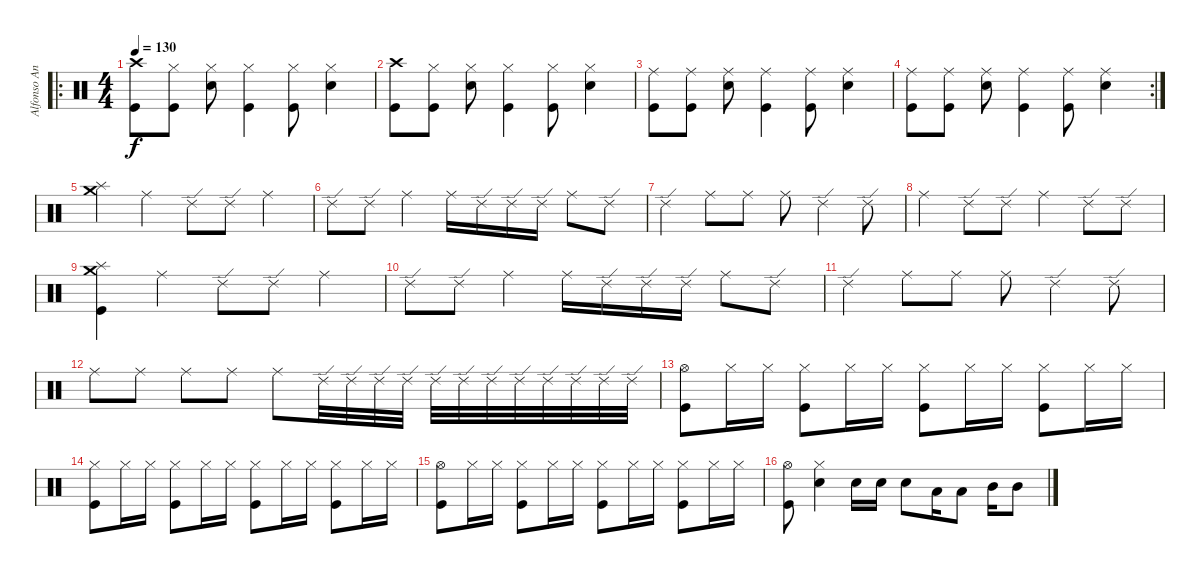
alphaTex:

\track ("Alfonso Andre" "Alfonso An") {instrument percussion}
\staff {score}
\articulation defaults
\ro
\ts (4 4)
\tempo 130
\clef neutral
\ks c
("Kick (hit)" "Crash high (hit)").8{dy f} ("Kick (hit)" "Hi-Hat (closed)").8 ("Snare (hit) 2" "Hi-Hat (closed)").8 ("Kick (hit)" "Hi-Hat (closed)").4 ("Kick (hit)" "Hi-Hat (closed)").8 ("Snare (hit) 2" "Hi-Hat (closed)").4 |
("Kick (hit)" "Crash high (hit)").8 ("Kick (hit)" "Hi-Hat (closed)").8 ("Snare (hit) 2" "Hi-Hat (closed)").8 ("Kick (hit)" "Hi-Hat (closed)").4 ("Kick (hit)" "Hi-Hat (closed)").8 ("Snare (hit) 2" "Hi-Hat (closed)").4 |
("Kick (hit)" "Ride (middle)").8 ("Kick (hit)" "Ride (middle)").8 ("Snare (hit) 2" "Ride (middle)").8 ("Kick (hit)" "Ride (middle)").4 ("Kick (hit)" "Ride (middle)").8 ("Snare (hit) 2" "Ride (middle)").4 |
\rc 2
("Kick (hit)" "Ride (middle)").8 ("Kick (hit)" "Ride (middle)").8 ("Snare (hit) 2" "Ride (middle)").8 ("Kick (hit)" "Ride (middle)").4 ("Kick (hit)" "Ride (middle)").8 ("Snare (hit) 2" "Ride (middle)").4 |
("Crash medium (hit)" "Splash (hit)").4 "Ride (middle)".4 "Ride (edge) 2".8 "Ride (edge) 2".8 "Ride (middle)".4 |
"Ride (edge) 2".8 "Ride (edge) 2".8 "Ride (middle)".4 "Ride (middle)".16 "Ride (edge) 2".16 "Ride (edge) 2".16 "Ride (edge) 2".16 "Ride (middle)".8 "Ride (edge) 2".8 |
"Ride (edge) 2".4 "Ride (middle)".8 "Ride (middle)".8 "Ride (middle)".8 "Ride (edge) 2".4 "Ride (edge) 2".8 |
"Ride (middle)".4 "Ride (edge) 2".8 "Ride (edge) 2".8 "Ride (middle)".4 "Ride (edge) 2".8 "Ride (edge) 2".8 |
("Kick (hit)" "Crash medium (hit)" "Splash (hit)").4 "Ride (middle)".4 "Ride (edge) 2".8 "Ride (edge) 2".8 "Ride (middle)".4 |
"Ride (edge) 2".8 "Ride (edge) 2".8 "Ride (middle)".4 "Ride (middle)".16 "Ride (edge) 2".16 "Ride (edge) 2".16 "Ride (edge) 2".16 "Ride (middle)".8 "Ride (edge) 2".8 |
"Ride (edge) 2".4 "Ride (middle)".8 "Ride (middle)".8 "Ride (middle)".8 "Ride (edge) 2".4 "Ride (edge) 2".8 |
"Ride (middle)".8 "Ride (middle)".8 "Ride (middle)".8 "Ride (middle)".8 "Ride (middle)".8 "Ride (edge) 2".32 "Ride (edge) 2".32 "Ride (edge) 2".32 "Ride (edge) 2".32 "Ride (edge) 2".32 "Ride (edge) 2".32 "Ride (edge) 2".32 "Ride (edge) 2".32 "Ride (edge) 2".32 "Ride (edge) 2".32 "Ride (edge) 2".32 "Ride (edge) 2".32 |
("Kick (hit)" "Hi-Hat (open)").8 "Hi-Hat (closed)".16 "Hi-Hat (closed)".16 ("Kick (hit)" "Hi-Hat (closed)").8 "Hi-Hat (closed)".16 "Hi-Hat (closed)".16 ("Kick (hit)" "Hi-Hat (closed)").8 "Hi-Hat (closed)".16 "Hi-Hat (closed)".16 ("Kick (hit)" "Hi-Hat (closed)").8 "Hi-Hat (closed)".16 "Hi-Hat (closed)".16 |
("Kick (hit)" "Hi-Hat (closed)").8 "Hi-Hat (closed)".16 "Hi-Hat (closed)".16 ("Kick (hit)" "Hi-Hat (closed)").8 "Hi-Hat (closed)".16 "Hi-Hat (closed)".16 ("Kick (hit)" "Hi-Hat (closed)").8 "Hi-Hat (closed)".16 "Hi-Hat (closed)".16 ("Kick (hit)" "Hi-Hat (closed)").8 "Hi-Hat (closed)".16 "Hi-Hat (closed)".16 |
("Kick (hit)" "Hi-Hat (open)").8 "Hi-Hat (closed)".16 "Hi-Hat (closed)".16 ("Kick (hit)" "Hi-Hat (closed)").8 "Hi-Hat (closed)".16 "Hi-Hat (closed)".16 ("Kick (hit)" "Hi-Hat (closed)").8 "Hi-Hat (closed)".16 "Hi-Hat (closed)".16 ("Kick (hit)" "Hi-Hat (closed)").8 "Hi-Hat (closed)".16 "Hi-Hat (closed)".16 |
("Kick (hit)" "Hi-Hat (open)").8 ("Snare (hit) 2" "Hi-Hat (closed)").4 "Snare (hit) 2".16 "Snare (hit) 2".16 "Snare (hit) 2".8 "Low Tom (hit)".16 "Low Tom (hit)".8 "Mid Tom (hit)".16 "Mid Tom (hit)".8
